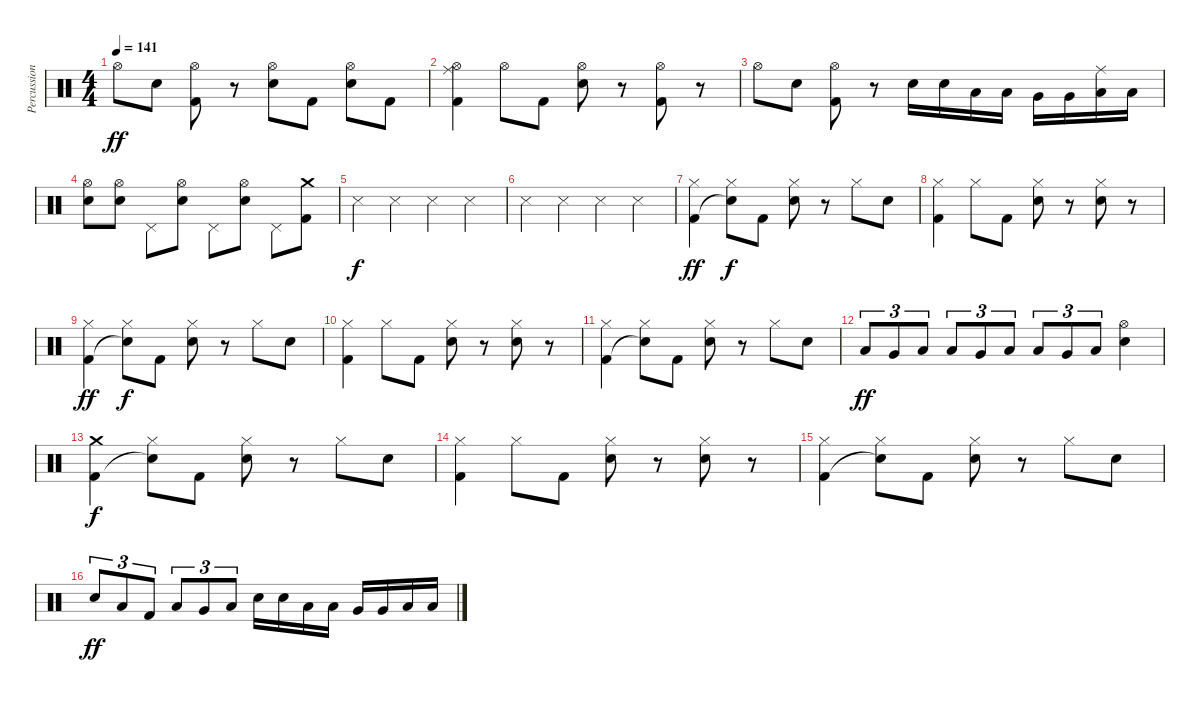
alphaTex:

\track ("Percussion" "Percussion") {instrument percussion}
\staff {score}
\articulation defaults
\ts (4 4)
\tempo 141
\clef neutral
\ks c "Hi-Hat (open)".8{dy ff} "Electric Snare (hit)".8
("Hi-Hat (open)" "Kick (hit) 2").8 r.8 ("Hi-Hat (open)" "Electric Snare (hit)").8 "Kick (hit) 2".8 ("Hi-Hat (open)" "Electric Snare (hit)").8 "Kick (hit) 2".8 |
("Ride (middle)" "Hi-Hat (open)" "Kick (hit) 2").4 "Hi-Hat (open)".8 "Kick (hit) 2".8 ("Hi-Hat (open)" "Electric Snare (hit)").8 r.8 ("Hi-Hat (open)" "Kick (hit) 2").8 r.8 |
"Hi-Hat (open)".8 "Electric Snare (hit)".8 ("Hi-Hat (open)" "Kick (hit) 2").8 r.8 "Electric Snare (hit)".16 "Electric Snare (hit)".16 "Low Tom (hit)".16 "Low Tom (hit)".16 "Very Low Tom (hit)".16 "Very Low Tom (hit)".16 ("Ride (middle)" "Low Floor Tom (hit)").16 "Low Floor Tom (hit)".16 |
("Hi-Hat (open)" "Electric Snare (hit)").8 ("Hi-Hat (open)" "Electric Snare (hit)").8 "Pedal Hi-Hat (hit)".8 ("Hi-Hat (open)" "Electric Snare (hit)").8 "Pedal Hi-Hat (hit)".8 ("Hi-Hat (open)" "Electric Snare (hit)").8 "Pedal Hi-Hat (hit)".8 ("Crash medium (hit)" "Kick (hit) 2").8 |
"Snare (side stick) 3".4{dy f} "Snare (side stick) 3".4 "Snare (side stick) 3".4 "Snare (side stick) 3".4 |
"Snare (side stick) 3".4 "Snare (side stick) 3".4 "Snare (side stick) 3".4 "Snare (side stick) 3".4 |
("Hi-Hat (closed)" "Kick (hit) 2").4{dy ff} ("Hi-Hat (closed)" "Snare (hit)"{t}).8{dy f} "Kick (hit) 2".8 ("Hi-Hat (closed)" "Electric Snare (hit)").8 r.8 "Hi-Hat (closed)".8 "Electric Snare (hit)".8 |
("Hi-Hat (closed)" "Kick (hit) 2").4 "Hi-Hat (closed)".8 "Kick (hit) 2".8 ("Hi-Hat (closed)" "Electric Snare (hit)").8 r.8 ("Hi-Hat (closed)" "Electric Snare (hit)").8 r.8 |
("Hi-Hat (closed)" "Kick (hit) 2").4{dy ff} ("Hi-Hat (closed)" "Snare (hit)"{t}).8{dy f} "Kick (hit) 2".8 ("Hi-Hat (closed)" "Electric Snare (hit)").8 r.8 "Hi-Hat (closed)".8 "Electric Snare (hit)".8 |
("Hi-Hat (closed)" "Kick (hit) 2").4 "Hi-Hat (closed)".8 "Kick (hit) 2".8 ("Hi-Hat (closed)" "Electric Snare (hit)").8 r.8 ("Hi-Hat (closed)" "Electric Snare (hit)").8 r.8 |
("Hi-Hat (closed)" "Kick (hit) 2").4 ("Hi-Hat (closed)" "Snare (hit)"{t}).8 "Kick (hit) 2".8 ("Hi-Hat (closed)" "Electric Snare (hit)").8 r.8 "Hi-Hat (closed)".8 "Electric Snare (hit)".8 |
"Low Tom (hit)".8{tu (3 2) dy ff} "Very Low Tom (hit)".8{tu (3 2)} "Low Floor Tom (hit)".8{tu (3 2)} "Low Tom (hit)".8{tu (3 2)} "Very Low Tom (hit)".8{tu (3 2)} "Low Floor Tom (hit)".8{tu (3 2)} "Low Tom (hit)".8{tu (3 2)} "Very Low Tom (hit)".8{tu (3 2)} "Low Floor Tom (hit)".8{tu (3 2)} ("Hi-Hat (open)" "Electric Snare (hit)").4 |
("Crash medium (hit)" "Kick (hit) 2").4{dy f} ("Hi-Hat (closed)" "Snare (hit)"{t}).8 "Kick (hit) 2".8 ("Hi-Hat (closed)" "Electric Snare (hit)").8 r.8 "Hi-Hat (closed)".8 "Electric Snare (hit)".8 |
("Hi-Hat (closed)" "Kick (hit) 2").4 "Hi-Hat (closed)".8 "Kick (hit) 2".8 ("Hi-Hat (closed)" "Electric Snare (hit)").8 r.8 ("Hi-Hat (closed)" "Electric Snare (hit)").8 r.8 |
("Hi-Hat (closed)" "Kick (hit) 2").4 ("Hi-Hat (closed)" "Snare (hit)"{t}).8 "Kick (hit) 2".8 ("Hi-Hat (closed)" "Electric Snare (hit)").8 r.8 "Hi-Hat (closed)".8 "Electric Snare (hit)".8 |
"Electric Snare (hit)".8{tu (3 2) dy ff} "Low Tom (hit)".8{tu (3 2)} "Kick (hit) 2".8{tu (3 2)} "Low Tom (hit)".8{tu (3 2)} "Very Low Tom (hit)".8{tu (3 2)} "Low Floor Tom (hit)".8{tu (3 2)} "Electric Snare (hit)".16 "Electric Snare (hit)".16 "Low Tom (hit)".16 "Low Tom (hit)".16 "Very Low Tom (hit)".16 "Very Low Tom (hit)".16 "Low Floor Tom (hit)".16 "Low Floor Tom (hit)".16
